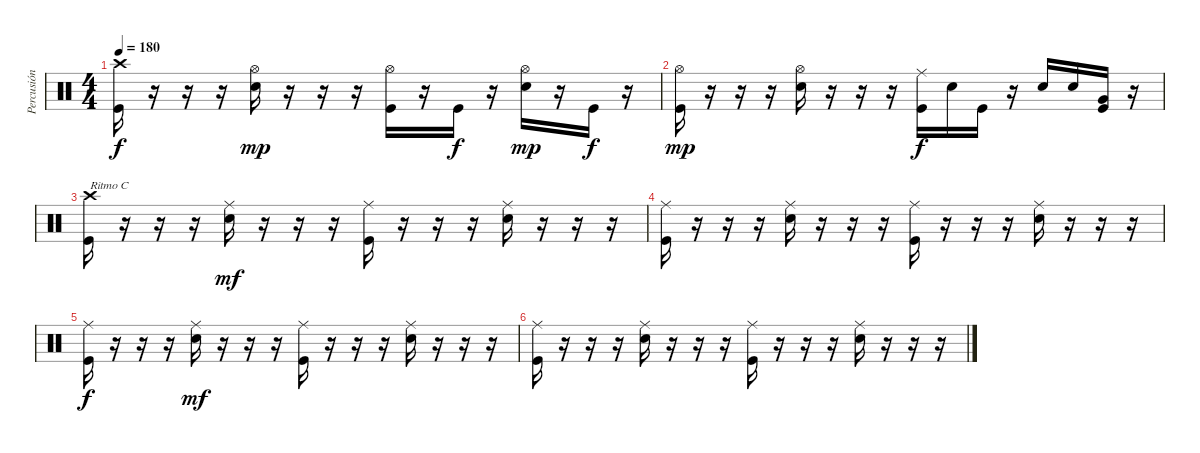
\track ("Percusión" "Percusión") {instrument percussion}
\staff {score}
\articulation defaults
\ts (4 4)
\tempo 180
\clef neutral
\ks c
("Crash high (hit)" "Kick (hit)").16{dy f} r.16 r.16 r.16 ("Hi-Hat (open)" "Snare (hit) 2").16{dy mp} r.16 r.16 r.16 ("Hi-Hat (open)" "Kick (hit)").16 r.16 "Kick (hit)".16{dy f} r.16 ("Hi-Hat (open)" "Snare (hit) 2").16{dy mp} r.16 "Kick (hit)".16{dy f} r.16 |
("Hi-Hat (open)" "Kick (hit)").16{dy mp} r.16 r.16 r.16 ("Hi-Hat (open)" "Snare (hit) 2").16 r.16 r.16 r.16 ("Ride (middle)" "Kick (hit)").16{dy f} "Snare (hit) 2".16 "Kick (hit)".16 r.16 "Snare (hit) 2".16 "Snare (hit) 2".16 ("Very Low Tom (hit)" "Kick (hit)").16 r.16 |
("Crash high (hit)" "Kick (hit)").16{txt "Ritmo C"} r.16 r.16 r.16 ("Ride (middle)" "Snare (hit) 2").16{dy mf} r.16 r.16 r.16 ("Ride (middle)" "Kick (hit)").16 r.16 r.16 r.16 ("Ride (middle)" "Snare (hit) 2").16 r.16 r.16 r.16 |
("Ride (middle)" "Kick (hit)").16 r.16 r.16 r.16 ("Ride (middle)" "Snare (hit) 2").16 r.16 r.16 r.16 ("Ride (middle)" "Kick (hit)").16 r.16 r.16 r.16 ("Ride (middle)" "Snare (hit) 2").16 r.16 r.16 r.16 |
("Ride (middle)" "Kick (hit)").16{dy f} r.16 r.16 r.16 ("Ride (middle)" "Snare (hit) 2").16{dy mf} r.16 r.16 r.16 ("Ride (middle)" "Kick (hit)").16 r.16 r.16 r.16 ("Ride (middle)" "Snare (hit) 2").16 r.16 r.16 r.16 |
("Ride (middle)" "Kick (hit)").16 r.16 r.16 r.16 ("Ride (middle)" "Snare (hit) 2").16 r.16 r.16 r.16 ("Ride (middle)" "Kick (hit)").16 r.16 r.16 r.16 ("Ride (middle)" "Snare (hit) 2").16 r.16 r.16 r.16
